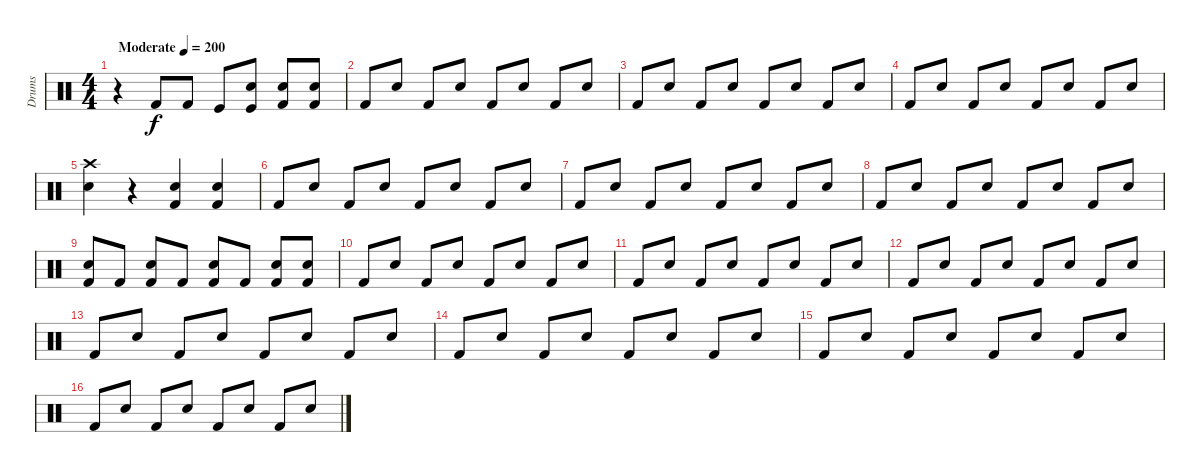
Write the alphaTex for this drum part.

\track ("Drums" "Drums") {instrument percussion}
\staff {score}
\articulation defaults
\ts (4 4)
\tempo (200 "Moderate")
\clef neutral
\ks c
r.4{dy f} "Kick (hit) 2".8 "Kick (hit) 2".8 "Kick (hit)".8 ("Snare (hit) 2" "Kick (hit)").8 ("Snare (hit) 2" "Kick (hit) 2").8 ("Snare (hit) 2" "Kick (hit) 2").8 |
"Kick (hit) 2".8 "Snare (hit) 2".8 "Kick (hit) 2".8 "Snare (hit) 2".8 "Kick (hit) 2".8 "Snare (hit) 2".8 "Kick (hit) 2".8 "Snare (hit) 2".8 |
"Kick (hit) 2".8 "Snare (hit) 2".8 "Kick (hit) 2".8 "Snare (hit) 2".8 "Kick (hit) 2".8 "Snare (hit) 2".8 "Kick (hit) 2".8 "Snare (hit) 2".8 |
"Kick (hit) 2".8 "Snare (hit) 2".8 "Kick (hit) 2".8 "Snare (hit) 2".8 "Kick (hit) 2".8 "Snare (hit) 2".8 "Kick (hit) 2".8 "Snare (hit) 2".8 |
("Crash high (hit)" "Electric Snare (hit)").4 r.4 ("Snare (hit) 2" "Kick (hit) 2").4 ("Snare (hit) 2" "Kick (hit) 2").4 |
"Kick (hit) 2".8 "Snare (hit) 2".8 "Kick (hit) 2".8 "Snare (hit) 2".8 "Kick (hit) 2".8 "Snare (hit) 2".8 "Kick (hit) 2".8 "Snare (hit) 2".8 |
"Kick (hit) 2".8 "Snare (hit) 2".8 "Kick (hit) 2".8 "Snare (hit) 2".8 "Kick (hit) 2".8 "Snare (hit) 2".8 "Kick (hit) 2".8 "Snare (hit) 2".8 |
"Kick (hit) 2".8 "Snare (hit) 2".8 "Kick (hit) 2".8 "Snare (hit) 2".8 "Kick (hit) 2".8 "Snare (hit) 2".8 "Kick (hit) 2".8 "Snare (hit) 2".8 |
("Kick (hit) 2" "Electric Snare (hit)").8 "Kick (hit) 2".8 ("Kick (hit) 2" "Snare (hit) 2").8 "Kick (hit) 2".8 ("Kick (hit) 2" "Snare (hit) 2").8 "Kick (hit) 2".8 ("Snare (hit) 2" "Kick (hit) 2").8 ("Snare (hit) 2" "Kick (hit) 2").8 |
"Kick (hit) 2".8 "Snare (hit) 2".8 "Kick (hit) 2".8 "Snare (hit) 2".8 "Kick (hit) 2".8 "Snare (hit) 2".8 "Kick (hit) 2".8 "Snare (hit) 2".8 |
"Kick (hit) 2".8 "Snare (hit) 2".8 "Kick (hit) 2".8 "Snare (hit) 2".8 "Kick (hit) 2".8 "Snare (hit) 2".8 "Kick (hit) 2".8 "Snare (hit) 2".8 |
"Kick (hit) 2".8 "Snare (hit) 2".8 "Kick (hit) 2".8 "Snare (hit) 2".8 "Kick (hit) 2".8 "Snare (hit) 2".8 "Kick (hit) 2".8 "Snare (hit) 2".8 |
"Kick (hit) 2".8 "Snare (hit) 2".8 "Kick (hit) 2".8 "Snare (hit) 2".8 "Kick (hit) 2".8 "Snare (hit) 2".8 "Kick (hit) 2".8 "Snare (hit) 2".8 |
"Kick (hit) 2".8 "Snare (hit) 2".8 "Kick (hit) 2".8 "Snare (hit) 2".8 "Kick (hit) 2".8 "Snare (hit) 2".8 "Kick (hit) 2".8 "Snare (hit) 2".8 |
"Kick (hit) 2".8 "Snare (hit) 2".8 "Kick (hit) 2".8 "Snare (hit) 2".8 "Kick (hit) 2".8 "Snare (hit) 2".8 "Kick (hit) 2".8 "Snare (hit) 2".8 |
"Kick (hit) 2".8 "Snare (hit) 2".8 "Kick (hit) 2".8 "Snare (hit) 2".8 "Kick (hit) 2".8 "Snare (hit) 2".8 "Kick (hit) 2".8 "Snare (hit) 2".8
